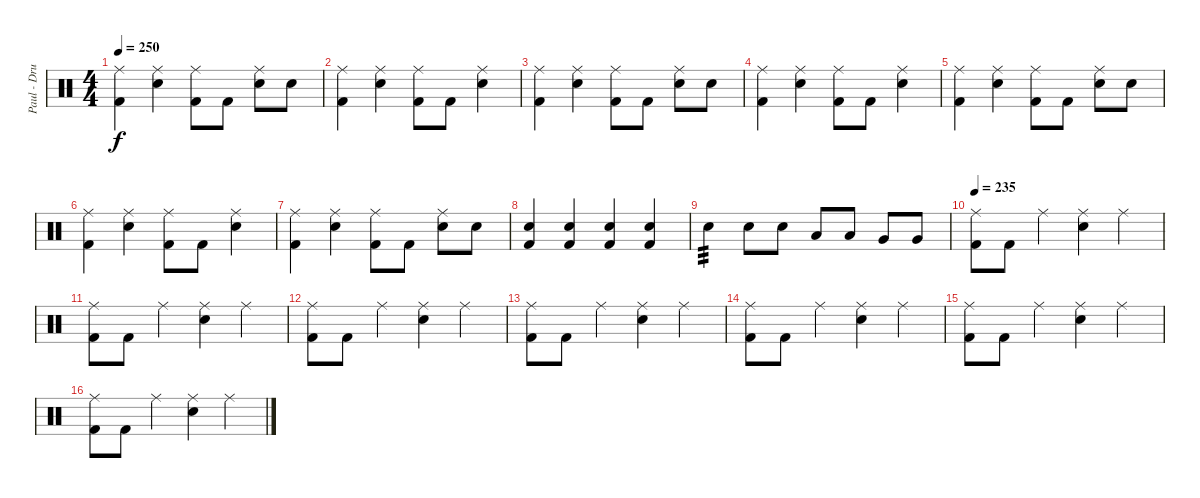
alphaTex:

\track ("Paul - Drums" "Paul - Dru") {instrument percussion}
\staff {score}
\articulation defaults
\ts (4 4)
\tempo 250
\clef neutral
\ks c
("Ride (middle)" "Kick (hit) 2").4{dy f} ("Ride (middle)" "Electric Snare (hit)").4 ("Ride (middle)" "Kick (hit) 2").8 "Kick (hit) 2".8 ("Ride (middle)" "Electric Snare (hit)").8 "Electric Snare (hit)".8 |
("Ride (middle)" "Kick (hit) 2").4 ("Ride (middle)" "Electric Snare (hit)").4 ("Ride (middle)" "Kick (hit) 2").8 "Kick (hit) 2".8 ("Ride (middle)" "Electric Snare (hit)").4 |
("Ride (middle)" "Kick (hit) 2").4 ("Ride (middle)" "Electric Snare (hit)").4 ("Ride (middle)" "Kick (hit) 2").8 "Kick (hit) 2".8 ("Ride (middle)" "Electric Snare (hit)").8 "Electric Snare (hit)".8 |
("Ride (middle)" "Kick (hit) 2").4 ("Ride (middle)" "Electric Snare (hit)").4 ("Ride (middle)" "Kick (hit) 2").8 "Kick (hit) 2".8 ("Ride (middle)" "Electric Snare (hit)").4 |
("Ride (middle)" "Kick (hit) 2").4 ("Ride (middle)" "Electric Snare (hit)").4 ("Ride (middle)" "Kick (hit) 2").8 "Kick (hit) 2".8 ("Ride (middle)" "Electric Snare (hit)").8 "Electric Snare (hit)".8 |
("Ride (middle)" "Kick (hit) 2").4 ("Ride (middle)" "Electric Snare (hit)").4 ("Ride (middle)" "Kick (hit) 2").8 "Kick (hit) 2".8 ("Ride (middle)" "Electric Snare (hit)").4 |
("Ride (middle)" "Kick (hit) 2").4 ("Ride (middle)" "Electric Snare (hit)").4 ("Ride (middle)" "Kick (hit) 2").8 "Kick (hit) 2".8 ("Ride (middle)" "Electric Snare (hit)").8 "Electric Snare (hit)".8 |
("Electric Snare (hit)" "Kick (hit) 2").4 ("Electric Snare (hit)" "Kick (hit) 2").4 ("Electric Snare (hit)" "Kick (hit) 2").4 ("Electric Snare (hit)" "Kick (hit) 2").4 |
"Electric Snare (hit)".4{tp 3} "Electric Snare (hit)".8 "Electric Snare (hit)".8 "Low Tom (hit)".8 "Low Tom (hit)".8 "Very Low Tom (hit)".8 "Very Low Tom (hit)".8 |
\tempo 315
\tempo 235
("Ride (middle)" "Kick (hit) 2").8 "Kick (hit) 2".8 "Ride (middle)".4 ("Ride (middle)" "Electric Snare (hit)").4 "Ride (middle)".4 |
("Ride (middle)" "Kick (hit) 2").8 "Kick (hit) 2".8 "Ride (middle)".4 ("Ride (middle)" "Electric Snare (hit)").4 "Ride (middle)".4 |
("Ride (middle)" "Kick (hit) 2").8 "Kick (hit) 2".8 "Ride (middle)".4 ("Ride (middle)" "Electric Snare (hit)").4 "Ride (middle)".4 |
("Ride (middle)" "Kick (hit) 2").8 "Kick (hit) 2".8 "Ride (middle)".4 ("Ride (middle)" "Electric Snare (hit)").4 "Ride (middle)".4 |
("Ride (middle)" "Kick (hit) 2").8 "Kick (hit) 2".8 "Ride (middle)".4 ("Ride (middle)" "Electric Snare (hit)").4 "Ride (middle)".4 |
("Ride (middle)" "Kick (hit) 2").8 "Kick (hit) 2".8 "Ride (middle)".4 ("Ride (middle)" "Electric Snare (hit)").4 "Ride (middle)".4 |
("Ride (middle)" "Kick (hit) 2").8 "Kick (hit) 2".8 "Ride (middle)".4 ("Ride (middle)" "Electric Snare (hit)").4 "Ride (middle)".4
